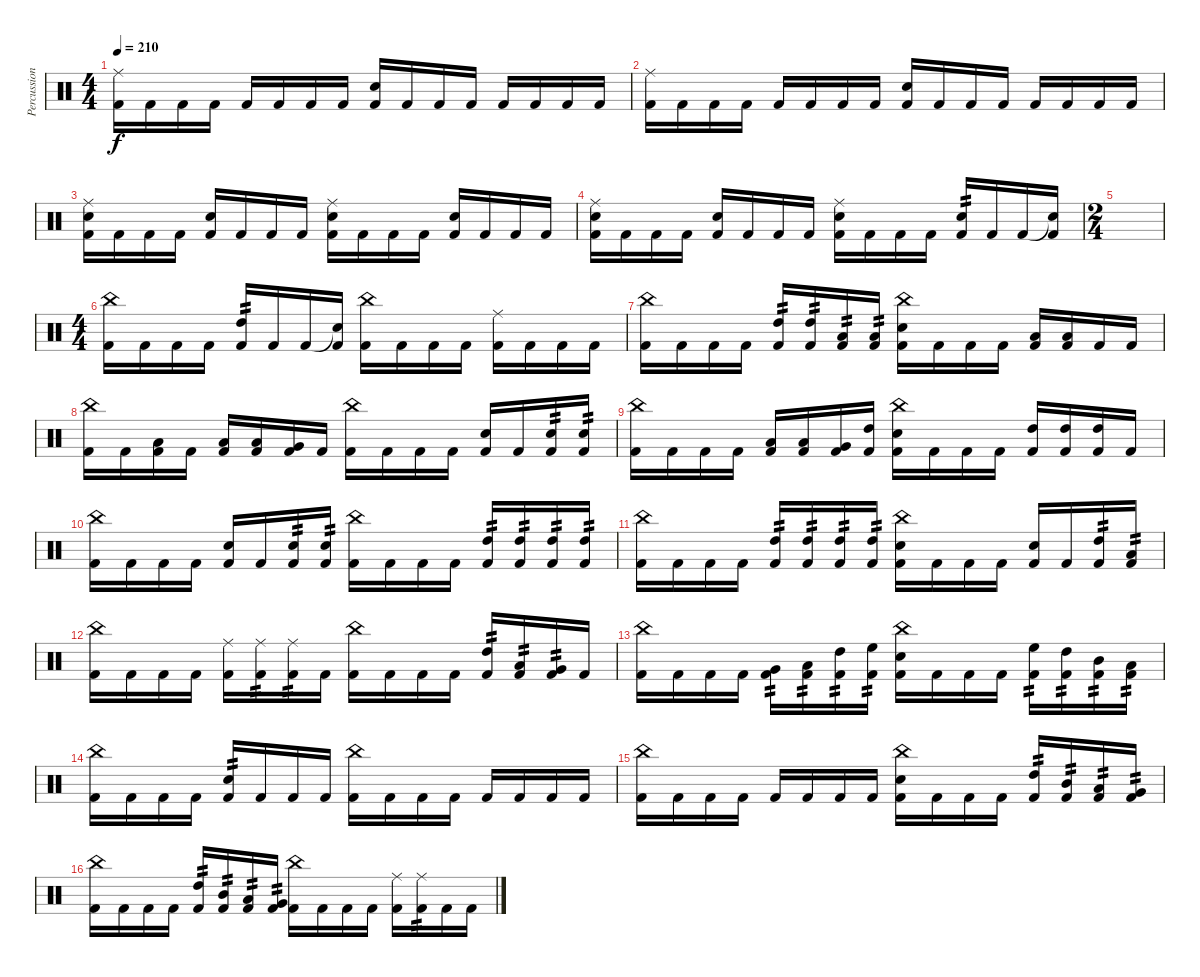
\track ("Percussions" "Percussion") {instrument percussion}
\staff {score}
\articulation defaults
\ts (4 4)
\tempo 210
\clef neutral
\ks c
("Ride (middle)" "Kick (hit) 2").16{dy f} "Kick (hit) 2".16 "Kick (hit) 2".16 "Kick (hit) 2".16 "Kick (hit) 2".16 "Kick (hit) 2".16 "Kick (hit) 2".16 "Kick (hit) 2".16 ("Snare (hit) 2" "Kick (hit) 2").16 "Kick (hit) 2".16 "Kick (hit) 2".16 "Kick (hit) 2".16 "Kick (hit) 2".16 "Kick (hit) 2".16 "Kick (hit) 2".16 "Kick (hit) 2".16 |
("Ride (middle)" "Kick (hit) 2").16 "Kick (hit) 2".16 "Kick (hit) 2".16 "Kick (hit) 2".16 "Kick (hit) 2".16 "Kick (hit) 2".16 "Kick (hit) 2".16 "Kick (hit) 2".16 ("Snare (hit) 2" "Kick (hit) 2").16 "Kick (hit) 2".16 "Kick (hit) 2".16 "Kick (hit) 2".16 "Kick (hit) 2".16 "Kick (hit) 2".16 "Kick (hit) 2".16 "Kick (hit) 2".16 |
("Snare (hit) 2" "Ride (middle)" "Kick (hit) 2").16 "Kick (hit) 2".16 "Kick (hit) 2".16 "Kick (hit) 2".16 ("Snare (hit) 2" "Kick (hit) 2").16 "Kick (hit) 2".16 "Kick (hit) 2".16 "Kick (hit) 2".16 ("Snare (hit) 2" "Ride (middle)" "Kick (hit) 2").16 "Kick (hit) 2".16 "Kick (hit) 2".16 "Kick (hit) 2".16 ("Snare (hit) 2" "Kick (hit) 2").16 "Kick (hit) 2".16 "Kick (hit) 2".16 "Kick (hit) 2".16 |
("Snare (hit) 2" "Ride (middle)" "Kick (hit) 2").16 "Kick (hit) 2".16 "Kick (hit) 2".16 "Kick (hit) 2".16 ("Snare (hit) 2" "Kick (hit) 2").16 "Kick (hit) 2".16 "Kick (hit) 2".16 "Kick (hit) 2".16 ("Snare (hit) 2" "Ride (middle)" "Kick (hit) 2").16 "Kick (hit) 2".16 "Kick (hit) 2".16 "Kick (hit) 2".16 ("Snare (hit) 2" "Kick (hit) 2").16{tp 2} "Kick (hit) 2".16 "Kick (hit) 2".16 ("Snare (hit)"{t} "Kick (hit) 2").16 |
\ts (2 4)
|
\ts (4 4)
("China (hit)" "Kick (hit) 2").16 "Kick (hit) 2".16 "Kick (hit) 2".16 "Kick (hit) 2".16 ("High Tom (hit)" "Kick (hit) 2").16{tp 2} "Kick (hit) 2".16 "Kick (hit) 2".16 ("Snare (hit)"{t} "Kick (hit) 2").16 ("China (hit)" "Kick (hit) 2").16 "Kick (hit) 2".16 "Kick (hit) 2".16 "Kick (hit) 2".16 ("Ride (middle)" "Kick (hit) 2").16 "Kick (hit) 2".16 "Kick (hit) 2".16 "Kick (hit) 2".16 |
("China (hit)" "Kick (hit) 2").16 "Kick (hit) 2".16 "Kick (hit) 2".16 "Kick (hit) 2".16 ("High Tom (hit)" "Kick (hit) 2").16{tp 2} ("High Tom (hit)" "Kick (hit) 2").16{tp 2} ("Low Tom (hit)" "Kick (hit) 2").16{tp 2} ("Low Tom (hit)" "Kick (hit) 2").16{tp 2} ("China (hit)" "Snare (hit) 2" "Kick (hit) 2").16 "Kick (hit) 2".16 "Kick (hit) 2".16 "Kick (hit) 2".16 ("Low Tom (hit)" "Kick (hit) 2").16 ("Low Tom (hit)" "Kick (hit) 2").16 "Kick (hit) 2".16 "Kick (hit) 2".16 |
("China (hit)" "Kick (hit) 2").16 "Kick (hit) 2".16 ("Low Tom (hit)" "Kick (hit) 2").16 "Kick (hit) 2".16 ("Low Tom (hit)" "Kick (hit) 2").16 ("Low Tom (hit)" "Kick (hit) 2").16 ("Very Low Tom (hit)" "Kick (hit) 2").16 "Kick (hit) 2".16 ("China (hit)" "Kick (hit) 2").16 "Kick (hit) 2".16 "Kick (hit) 2".16 "Kick (hit) 2".16 ("Snare (hit) 2" "Kick (hit) 2").16 "Kick (hit) 2".16 ("Snare (hit) 2" "Kick (hit) 2").16{tp 2} ("Snare (hit) 2" "Kick (hit) 2").16{tp 2} |
("China (hit)" "Kick (hit) 2").16 "Kick (hit) 2".16 "Kick (hit) 2".16 "Kick (hit) 2".16 ("Low Tom (hit)" "Kick (hit) 2").16 ("Low Tom (hit)" "Kick (hit) 2").16 ("Very Low Tom (hit)" "Kick (hit) 2").16 ("High Tom (hit)" "Kick (hit) 2").16 ("China (hit)" "Snare (hit) 2" "Kick (hit) 2").16 "Kick (hit) 2".16 "Kick (hit) 2".16 "Kick (hit) 2".16 ("High Tom (hit)" "Kick (hit) 2").16 ("High Tom (hit)" "Kick (hit) 2").16 ("High Tom (hit)" "Kick (hit) 2").16 "Kick (hit) 2".16 |
("China (hit)" "Kick (hit) 2").16 "Kick (hit) 2".16 "Kick (hit) 2".16 "Kick (hit) 2".16 ("Snare (hit) 2" "Kick (hit) 2").16 "Kick (hit) 2".16 ("Snare (hit) 2" "Kick (hit) 2").16{tp 2} ("Snare (hit) 2" "Kick (hit) 2").16{tp 2} ("China (hit)" "Kick (hit) 2").16 "Kick (hit) 2".16 "Kick (hit) 2".16 "Kick (hit) 2".16 ("High Tom (hit)" "Kick (hit) 2").16{tp 2} ("High Tom (hit)" "Kick (hit) 2").16{tp 2} ("High Tom (hit)" "Kick (hit) 2").16{tp 2} ("High Tom (hit)" "Kick (hit) 2").16{tp 2} |
("China (hit)" "Kick (hit) 2").16 "Kick (hit) 2".16 "Kick (hit) 2".16 "Kick (hit) 2".16 ("High Tom (hit)" "Kick (hit) 2").16{tp 2} ("High Tom (hit)" "Kick (hit) 2").16{tp 2} ("High Tom (hit)" "Kick (hit) 2").16{tp 2} ("High Tom (hit)" "Kick (hit) 2").16{tp 2} ("China (hit)" "Snare (hit) 2" "Kick (hit) 2").16 "Kick (hit) 2".16 "Kick (hit) 2".16 "Kick (hit) 2".16 ("Snare (hit) 2" "Kick (hit) 2").16 "Kick (hit) 2".16 ("High Tom (hit)" "Kick (hit) 2").16{tp 2} ("Low Tom (hit)" "Kick (hit) 2").16{tp 2} |
("China (hit)" "Kick (hit) 2").16 "Kick (hit) 2".16 "Kick (hit) 2".16 "Kick (hit) 2".16 ("Ride (middle)" "Kick (hit) 2").16 ("Ride (middle)" "Kick (hit) 2").16{tp 2} ("Ride (middle)" "Kick (hit) 2").16{tp 2} "Kick (hit) 2".16 ("China (hit)" "Kick (hit) 2").16 "Kick (hit) 2".16 "Kick (hit) 2".16 "Kick (hit) 2".16 ("High Tom (hit)" "Kick (hit) 2").16{tp 2} ("Low Tom (hit)" "Kick (hit) 2").16{tp 2} ("Very Low Tom (hit)" "Kick (hit) 2").16{tp 2} "Kick (hit) 2".16 |
("China (hit)" "Kick (hit) 2").16 "Kick (hit) 2".16 "Kick (hit) 2".16 "Kick (hit) 2".16 ("Very Low Tom (hit)" "Kick (hit) 2").16{tp 2} ("Low Tom (hit)" "Kick (hit) 2").16{tp 2} ("High Tom (hit)" "Kick (hit) 2").16{tp 2} ("High Floor Tom (hit)" "Kick (hit) 2").16{tp 2} ("China (hit)" "Snare (hit) 2" "Kick (hit) 2").16 "Kick (hit) 2".16 "Kick (hit) 2".16 "Kick (hit) 2".16 ("High Floor Tom (hit)" "Kick (hit) 2").16{tp 2} ("High Tom (hit)" "Kick (hit) 2").16{tp 2} ("Mid Tom (hit)" "Kick (hit) 2").16{tp 2} ("Low Tom (hit)" "Kick (hit) 2").16{tp 2} |
("China (hit)" "Kick (hit) 2").16 "Kick (hit) 2".16 "Kick (hit) 2".16 "Kick (hit) 2".16 ("Snare (hit) 2" "Kick (hit) 2").16{tp 2} "Kick (hit) 2".16 "Kick (hit) 2".16 "Kick (hit) 2".16 ("China (hit)" "Kick (hit) 2").16 "Kick (hit) 2".16 "Kick (hit) 2".16 "Kick (hit) 2".16 "Kick (hit) 2".16 "Kick (hit) 2".16 "Kick (hit) 2".16 "Kick (hit) 2".16 |
("China (hit)" "Kick (hit) 2").16 "Kick (hit) 2".16 "Kick (hit) 2".16 "Kick (hit) 2".16 "Kick (hit) 2".16 "Kick (hit) 2".16 "Kick (hit) 2".16 "Kick (hit) 2".16 ("China (hit)" "Snare (hit) 2" "Kick (hit) 2").16 "Kick (hit) 2".16 "Kick (hit) 2".16 "Kick (hit) 2".16 ("High Tom (hit)" "Kick (hit) 2").16{tp 2} ("Mid Tom (hit)" "Kick (hit) 2").16{tp 2} ("Low Tom (hit)" "Kick (hit) 2").16{tp 2} ("Very Low Tom (hit)" "Kick (hit) 2").16{tp 2} |
("China (hit)" "Kick (hit) 2").16 "Kick (hit) 2".16 "Kick (hit) 2".16 "Kick (hit) 2".16 ("High Tom (hit)" "Kick (hit) 2").16{tp 2} ("Mid Tom (hit)" "Kick (hit) 2").16{tp 2} ("Low Tom (hit)" "Kick (hit) 2").16{tp 2} ("Very Low Tom (hit)" "Kick (hit) 2").16{tp 2} ("China (hit)" "Kick (hit) 2").16 "Kick (hit) 2".16 "Kick (hit) 2".16 "Kick (hit) 2".16 ("Ride (middle)" "Kick (hit) 2").16 ("Ride (middle)" "Kick (hit) 2").16{tp 2} "Kick (hit) 2".16 "Kick (hit) 2".16
